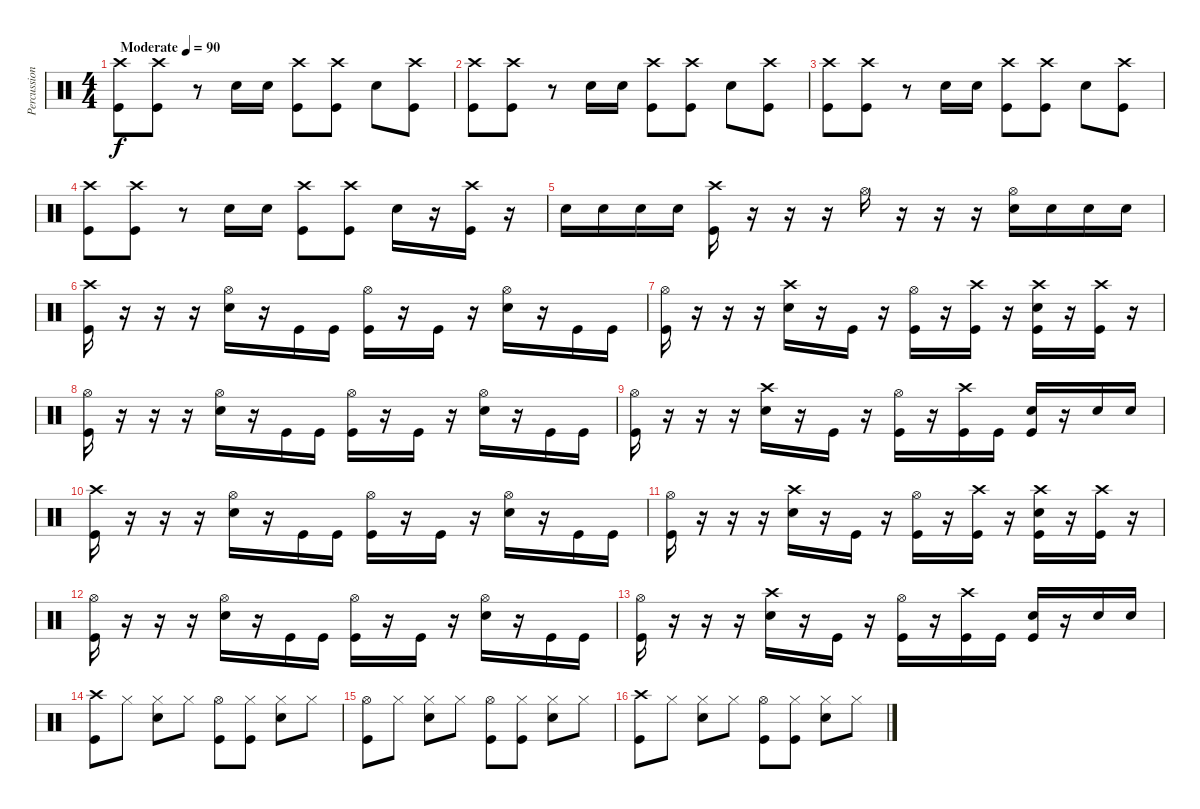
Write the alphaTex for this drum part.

\track ("Percussion" "Percussion") {instrument percussion}
\staff {score}
\articulation defaults
\ts (4 4)
\tempo (90 "Moderate")
\clef neutral
\ks c
("Crash high (hit)" "Kick (hit)").8{dy f} ("Crash high (hit)" "Kick (hit)").8 r.8 "Electric Snare (hit)".16 "Electric Snare (hit)".16 ("Crash high (hit)" "Kick (hit)").8 ("Crash high (hit)" "Kick (hit)").8 "Electric Snare (hit)".8 ("Crash high (hit)" "Kick (hit)").8 |
("Crash high (hit)" "Kick (hit)").8 ("Crash high (hit)" "Kick (hit)").8 r.8 "Electric Snare (hit)".16 "Electric Snare (hit)".16 ("Crash high (hit)" "Kick (hit)").8 ("Crash high (hit)" "Kick (hit)").8 "Electric Snare (hit)".8 ("Crash high (hit)" "Kick (hit)").8 |
("Crash high (hit)" "Kick (hit)").8 ("Crash high (hit)" "Kick (hit)").8 r.8 "Electric Snare (hit)".16 "Electric Snare (hit)".16 ("Crash high (hit)" "Kick (hit)").8 ("Crash high (hit)" "Kick (hit)").8 "Electric Snare (hit)".8 ("Crash high (hit)" "Kick (hit)").8 |
("Crash high (hit)" "Kick (hit)").8 ("Crash high (hit)" "Kick (hit)").8 r.8 "Electric Snare (hit)".16 "Electric Snare (hit)".16 ("Crash high (hit)" "Kick (hit)").8 ("Crash high (hit)" "Kick (hit)").8 "Electric Snare (hit)".16 r.16 ("Crash high (hit)" "Kick (hit)").16 r.16 |
"Electric Snare (hit)".16 "Electric Snare (hit)".16 "Electric Snare (hit)".16 "Electric Snare (hit)".16 ("Crash high (hit)" "Kick (hit)").16 r.16 r.16 r.16 "Hi-Hat (open)".16 r.16 r.16 r.16 ("Hi-Hat (open)" "Electric Snare (hit)").16 "Electric Snare (hit)".16 "Electric Snare (hit)".16 "Electric Snare (hit)".16 |
("Crash high (hit)" "Kick (hit)").16 r.16 r.16 r.16 ("Hi-Hat (open)" "Electric Snare (hit)").16 r.16 "Kick (hit)".16 "Kick (hit)".16 ("Hi-Hat (open)" "Kick (hit)").16 r.16 "Kick (hit)".16 r.16 ("Hi-Hat (open)" "Electric Snare (hit)").16 r.16 "Kick (hit)".16 "Kick (hit)".16 |
("Hi-Hat (open)" "Kick (hit)").16 r.16 r.16 r.16 ("Crash high (hit)" "Electric Snare (hit)").16 r.16 "Kick (hit)".16 r.16 ("Hi-Hat (open)" "Kick (hit)").16 r.16 ("Crash high (hit)" "Kick (hit)").16 r.16 ("Crash high (hit)" "Electric Snare (hit)" "Kick (hit)").16 r.16 ("Crash high (hit)" "Kick (hit)").16 r.16 |
("Hi-Hat (open)" "Kick (hit)").16 r.16 r.16 r.16 ("Hi-Hat (open)" "Electric Snare (hit)").16 r.16 "Kick (hit)".16 "Kick (hit)".16 ("Hi-Hat (open)" "Kick (hit)").16 r.16 "Kick (hit)".16 r.16 ("Hi-Hat (open)" "Electric Snare (hit)").16 r.16 "Kick (hit)".16 "Kick (hit)".16 |
("Hi-Hat (open)" "Kick (hit)").16 r.16 r.16 r.16 ("Crash high (hit)" "Electric Snare (hit)").16 r.16 "Kick (hit)".16 r.16 ("Hi-Hat (open)" "Kick (hit)").16 r.16 ("Crash high (hit)" "Kick (hit)").16 "Kick (hit)".16 ("Electric Snare (hit)" "Kick (hit)").16 r.16 "Electric Snare (hit)".16 "Electric Snare (hit)".16 |
("Crash high (hit)" "Kick (hit)").16 r.16 r.16 r.16 ("Hi-Hat (open)" "Electric Snare (hit)").16 r.16 "Kick (hit)".16 "Kick (hit)".16 ("Hi-Hat (open)" "Kick (hit)").16 r.16 "Kick (hit)".16 r.16 ("Hi-Hat (open)" "Electric Snare (hit)").16 r.16 "Kick (hit)".16 "Kick (hit)".16 |
("Hi-Hat (open)" "Kick (hit)").16 r.16 r.16 r.16 ("Crash high (hit)" "Electric Snare (hit)").16 r.16 "Kick (hit)".16 r.16 ("Hi-Hat (open)" "Kick (hit)").16 r.16 ("Crash high (hit)" "Kick (hit)").16 r.16 ("Crash high (hit)" "Electric Snare (hit)" "Kick (hit)").16 r.16 ("Crash high (hit)" "Kick (hit)").16 r.16 |
("Hi-Hat (open)" "Kick (hit)").16 r.16 r.16 r.16 ("Hi-Hat (open)" "Electric Snare (hit)").16 r.16 "Kick (hit)".16 "Kick (hit)".16 ("Hi-Hat (open)" "Kick (hit)").16 r.16 "Kick (hit)".16 r.16 ("Hi-Hat (open)" "Electric Snare (hit)").16 r.16 "Kick (hit)".16 "Kick (hit)".16 |
("Hi-Hat (open)" "Kick (hit)").16 r.16 r.16 r.16 ("Crash high (hit)" "Electric Snare (hit)").16 r.16 "Kick (hit)".16 r.16 ("Hi-Hat (open)" "Kick (hit)").16 r.16 ("Crash high (hit)" "Kick (hit)").16 "Kick (hit)".16 ("Electric Snare (hit)" "Kick (hit)").16 r.16 "Electric Snare (hit)".16 "Electric Snare (hit)".16 |
("Crash high (hit)" "Kick (hit)").8 "Hi-Hat (closed)".8 ("Hi-Hat (closed)" "Electric Snare (hit)").8 "Hi-Hat (closed)".8 ("Hi-Hat (open)" "Kick (hit)").8 ("Hi-Hat (closed)" "Kick (hit)").8 ("Hi-Hat (closed)" "Electric Snare (hit)").8 "Hi-Hat (closed)".8 |
("Hi-Hat (open)" "Kick (hit)").8 "Hi-Hat (closed)".8 ("Hi-Hat (closed)" "Electric Snare (hit)").8 "Hi-Hat (closed)".8 ("Hi-Hat (open)" "Kick (hit)").8 ("Hi-Hat (closed)" "Kick (hit)").8 ("Hi-Hat (closed)" "Electric Snare (hit)").8 "Hi-Hat (closed)".8 |
("Crash high (hit)" "Kick (hit)").8 "Hi-Hat (closed)".8 ("Hi-Hat (closed)" "Electric Snare (hit)").8 "Hi-Hat (closed)".8 ("Hi-Hat (open)" "Kick (hit)").8 ("Hi-Hat (closed)" "Kick (hit)").8 ("Hi-Hat (closed)" "Electric Snare (hit)").8 "Hi-Hat (closed)".8
